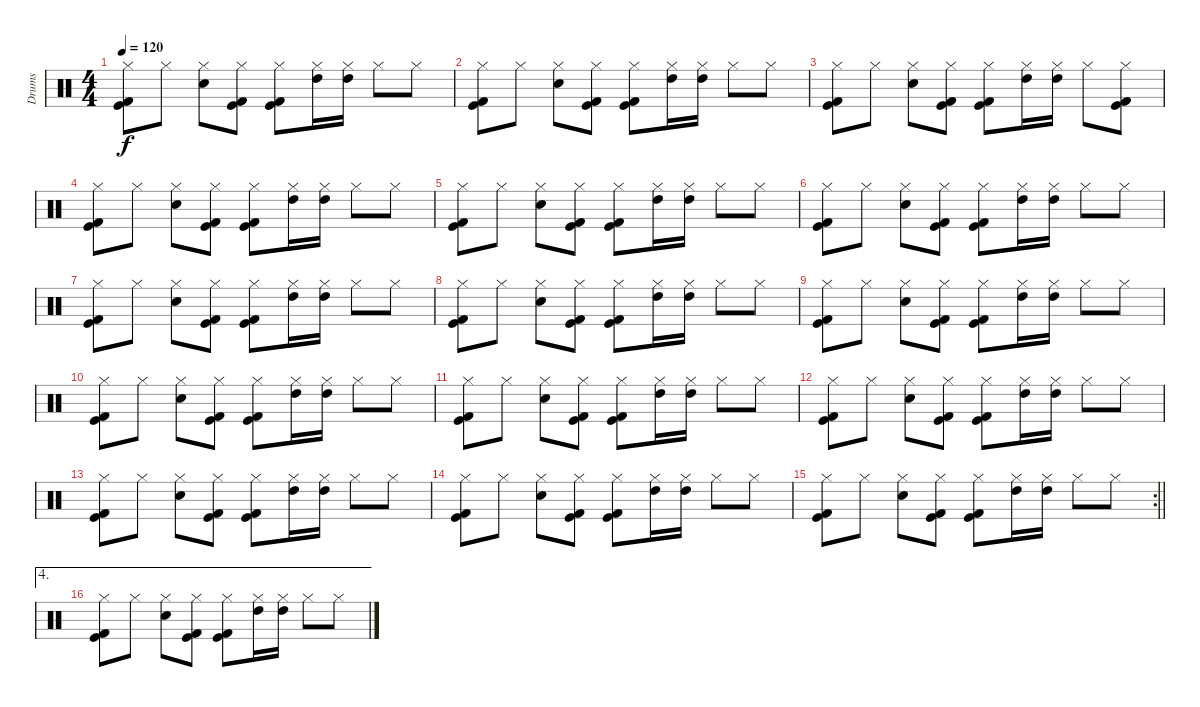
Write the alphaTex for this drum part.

\track ("Drums" "Drums") {instrument percussion}
\staff {score}
\articulation defaults
\ts (4 4)
\tempo 120
\clef neutral
\ks c
("Hi-Hat (closed)" "Kick (hit) 2" "Kick (hit)").8{dy f} "Hi-Hat (closed)".8 ("Hi-Hat (closed)" "Snare (hit) 2").8 ("Hi-Hat (closed)" "Kick (hit) 2" "Kick (hit)").8 ("Hi-Hat (closed)" "Kick (hit) 2" "Kick (hit)").8 ("Hi-Hat (closed)" "High Tom (hit)").16 ("Hi-Hat (closed)" "High Tom (hit)").16 "Hi-Hat (closed)".8 "Hi-Hat (closed)".8 |
("Hi-Hat (closed)" "Kick (hit) 2" "Kick (hit)").8 "Hi-Hat (closed)".8 ("Hi-Hat (closed)" "Snare (hit) 2").8 ("Hi-Hat (closed)" "Kick (hit) 2" "Kick (hit)").8 ("Hi-Hat (closed)" "Kick (hit) 2" "Kick (hit)").8 ("Hi-Hat (closed)" "High Tom (hit)").16 ("Hi-Hat (closed)" "High Tom (hit)").16 "Hi-Hat (closed)".8 "Hi-Hat (closed)".8 |
("Hi-Hat (closed)" "Kick (hit) 2" "Kick (hit)").8 "Hi-Hat (closed)".8 ("Hi-Hat (closed)" "Snare (hit) 2").8 ("Hi-Hat (closed)" "Kick (hit) 2" "Kick (hit)").8 ("Hi-Hat (closed)" "Kick (hit) 2" "Kick (hit)").8 ("Hi-Hat (closed)" "High Tom (hit)").16 ("Hi-Hat (closed)" "High Tom (hit)").16 "Hi-Hat (closed)".8 ("Hi-Hat (closed)" "Kick (hit) 2" "Kick (hit)").8 |
("Hi-Hat (closed)" "Kick (hit) 2" "Kick (hit)").8 "Hi-Hat (closed)".8 ("Hi-Hat (closed)" "Snare (hit) 2").8 ("Hi-Hat (closed)" "Kick (hit) 2" "Kick (hit)").8 ("Hi-Hat (closed)" "Kick (hit) 2" "Kick (hit)").8 ("Hi-Hat (closed)" "High Tom (hit)").16 ("Hi-Hat (closed)" "High Tom (hit)").16 "Hi-Hat (closed)".8 "Hi-Hat (closed)".8 |
("Hi-Hat (closed)" "Kick (hit) 2" "Kick (hit)").8 "Hi-Hat (closed)".8 ("Hi-Hat (closed)" "Snare (hit) 2").8 ("Hi-Hat (closed)" "Kick (hit) 2" "Kick (hit)").8 ("Hi-Hat (closed)" "Kick (hit) 2" "Kick (hit)").8 ("Hi-Hat (closed)" "High Tom (hit)").16 ("Hi-Hat (closed)" "High Tom (hit)").16 "Hi-Hat (closed)".8 "Hi-Hat (closed)".8 |
("Hi-Hat (closed)" "Kick (hit) 2" "Kick (hit)").8 "Hi-Hat (closed)".8 ("Hi-Hat (closed)" "Snare (hit) 2").8 ("Hi-Hat (closed)" "Kick (hit) 2" "Kick (hit)").8 ("Hi-Hat (closed)" "Kick (hit) 2" "Kick (hit)").8 ("Hi-Hat (closed)" "High Tom (hit)").16 ("Hi-Hat (closed)" "High Tom (hit)").16 "Hi-Hat (closed)".8 "Hi-Hat (closed)".8 |
("Hi-Hat (closed)" "Kick (hit) 2" "Kick (hit)").8 "Hi-Hat (closed)".8 ("Hi-Hat (closed)" "Snare (hit) 2").8 ("Hi-Hat (closed)" "Kick (hit) 2" "Kick (hit)").8 ("Hi-Hat (closed)" "Kick (hit) 2" "Kick (hit)").8 ("Hi-Hat (closed)" "High Tom (hit)").16 ("Hi-Hat (closed)" "High Tom (hit)").16 "Hi-Hat (closed)".8 "Hi-Hat (closed)".8 |
("Hi-Hat (closed)" "Kick (hit) 2" "Kick (hit)").8 "Hi-Hat (closed)".8 ("Hi-Hat (closed)" "Snare (hit) 2").8 ("Hi-Hat (closed)" "Kick (hit) 2" "Kick (hit)").8 ("Hi-Hat (closed)" "Kick (hit) 2" "Kick (hit)").8 ("Hi-Hat (closed)" "High Tom (hit)").16 ("Hi-Hat (closed)" "High Tom (hit)").16 "Hi-Hat (closed)".8 "Hi-Hat (closed)".8 |
("Hi-Hat (closed)" "Kick (hit) 2" "Kick (hit)").8 "Hi-Hat (closed)".8 ("Hi-Hat (closed)" "Snare (hit) 2").8 ("Hi-Hat (closed)" "Kick (hit) 2" "Kick (hit)").8 ("Hi-Hat (closed)" "Kick (hit) 2" "Kick (hit)").8 ("Hi-Hat (closed)" "High Tom (hit)").16 ("Hi-Hat (closed)" "High Tom (hit)").16 "Hi-Hat (closed)".8 "Hi-Hat (closed)".8 |
("Hi-Hat (closed)" "Kick (hit) 2" "Kick (hit)").8 "Hi-Hat (closed)".8 ("Hi-Hat (closed)" "Snare (hit) 2").8 ("Hi-Hat (closed)" "Kick (hit) 2" "Kick (hit)").8 ("Hi-Hat (closed)" "Kick (hit) 2" "Kick (hit)").8 ("Hi-Hat (closed)" "High Tom (hit)").16 ("Hi-Hat (closed)" "High Tom (hit)").16 "Hi-Hat (closed)".8 "Hi-Hat (closed)".8 |
("Hi-Hat (closed)" "Kick (hit) 2" "Kick (hit)").8 "Hi-Hat (closed)".8 ("Hi-Hat (closed)" "Snare (hit) 2").8 ("Hi-Hat (closed)" "Kick (hit) 2" "Kick (hit)").8 ("Hi-Hat (closed)" "Kick (hit) 2" "Kick (hit)").8 ("Hi-Hat (closed)" "High Tom (hit)").16 ("Hi-Hat (closed)" "High Tom (hit)").16 "Hi-Hat (closed)".8 "Hi-Hat (closed)".8 |
("Hi-Hat (closed)" "Kick (hit) 2" "Kick (hit)").8 "Hi-Hat (closed)".8 ("Hi-Hat (closed)" "Snare (hit) 2").8 ("Hi-Hat (closed)" "Kick (hit) 2" "Kick (hit)").8 ("Hi-Hat (closed)" "Kick (hit) 2" "Kick (hit)").8 ("Hi-Hat (closed)" "High Tom (hit)").16 ("Hi-Hat (closed)" "High Tom (hit)").16 "Hi-Hat (closed)".8 "Hi-Hat (closed)".8 |
("Hi-Hat (closed)" "Kick (hit) 2" "Kick (hit)").8 "Hi-Hat (closed)".8 ("Hi-Hat (closed)" "Snare (hit) 2").8 ("Hi-Hat (closed)" "Kick (hit) 2" "Kick (hit)").8 ("Hi-Hat (closed)" "Kick (hit) 2" "Kick (hit)").8 ("Hi-Hat (closed)" "High Tom (hit)").16 ("Hi-Hat (closed)" "High Tom (hit)").16 "Hi-Hat (closed)".8 "Hi-Hat (closed)".8 |
("Hi-Hat (closed)" "Kick (hit) 2" "Kick (hit)").8 "Hi-Hat (closed)".8 ("Hi-Hat (closed)" "Snare (hit) 2").8 ("Hi-Hat (closed)" "Kick (hit) 2" "Kick (hit)").8 ("Hi-Hat (closed)" "Kick (hit) 2" "Kick (hit)").8 ("Hi-Hat (closed)" "High Tom (hit)").16 ("Hi-Hat (closed)" "High Tom (hit)").16 "Hi-Hat (closed)".8 "Hi-Hat (closed)".8 |
\rc 2
\barLineRight lightlight
("Hi-Hat (closed)" "Kick (hit) 2" "Kick (hit)").8 "Hi-Hat (closed)".8 ("Hi-Hat (closed)" "Snare (hit) 2").8 ("Hi-Hat (closed)" "Kick (hit) 2" "Kick (hit)").8 ("Hi-Hat (closed)" "Kick (hit) 2" "Kick (hit)").8 ("Hi-Hat (closed)" "High Tom (hit)").16 ("Hi-Hat (closed)" "High Tom (hit)").16 "Hi-Hat (closed)".8 "Hi-Hat (closed)".8 |
\ae 4
("Hi-Hat (closed)" "Kick (hit) 2" "Kick (hit)").8 "Hi-Hat (closed)".8 ("Hi-Hat (closed)" "Snare (hit) 2").8 ("Hi-Hat (closed)" "Kick (hit) 2" "Kick (hit)").8 ("Hi-Hat (closed)" "Kick (hit) 2" "Kick (hit)").8 ("Hi-Hat (closed)" "High Tom (hit)").16 ("Hi-Hat (closed)" "High Tom (hit)").16 "Hi-Hat (closed)".8 "Hi-Hat (closed)".8
